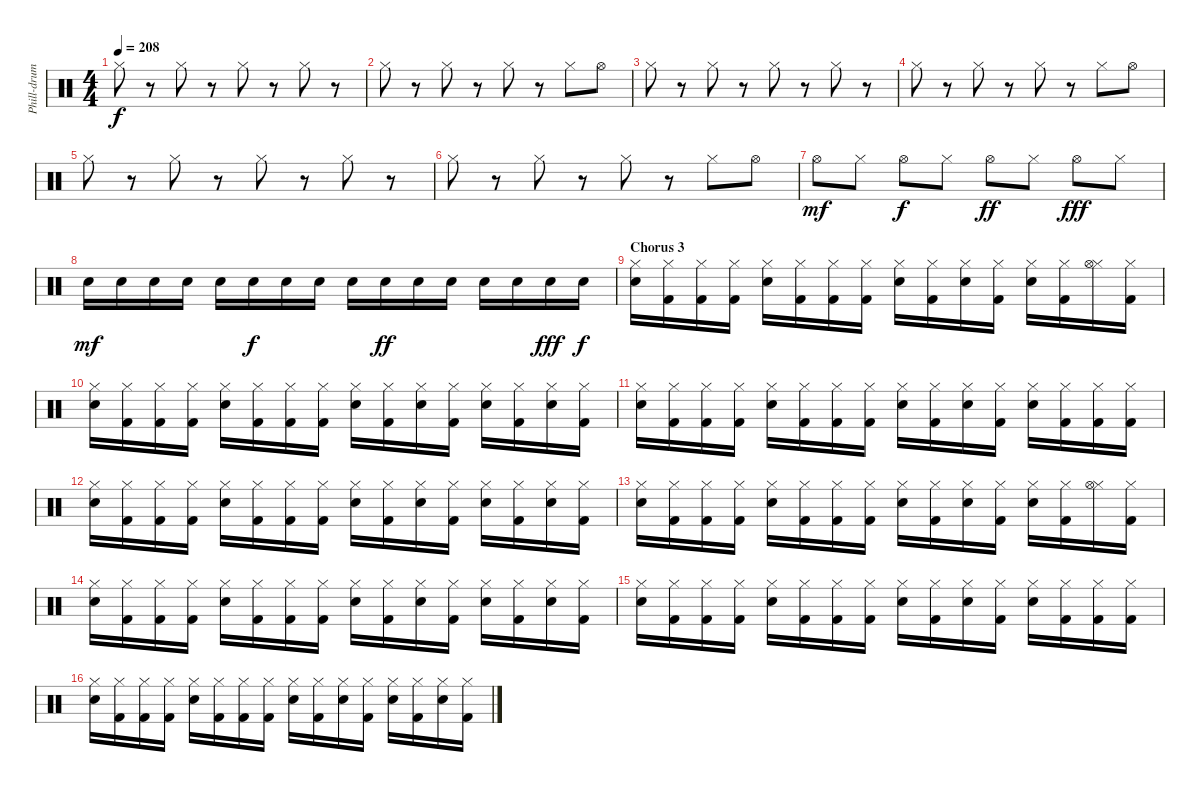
\track ("Phill-drum" "Phill-drum") {instrument percussion}
\staff {score}
\articulation defaults
\ts (4 4)
\tempo 208
\clef neutral
\ks c "Hi-Hat (closed)".8{dy f}
r.8 "Hi-Hat (closed)".8 r.8 "Hi-Hat (closed)".8 r.8 "Hi-Hat (closed)".8 r.8 |
"Hi-Hat (closed)".8 r.8 "Hi-Hat (closed)".8 r.8 "Hi-Hat (closed)".8 r.8 "Hi-Hat (closed)".8 "Hi-Hat (open)".8 |
"Hi-Hat (closed)".8 r.8 "Hi-Hat (closed)".8 r.8 "Hi-Hat (closed)".8 r.8 "Hi-Hat (closed)".8 r.8 |
"Hi-Hat (closed)".8 r.8 "Hi-Hat (closed)".8 r.8 "Hi-Hat (closed)".8 r.8 "Hi-Hat (closed)".8 "Hi-Hat (open)".8 |
"Hi-Hat (closed)".8 r.8 "Hi-Hat (closed)".8 r.8 "Hi-Hat (closed)".8 r.8 "Hi-Hat (closed)".8 r.8 |
"Hi-Hat (closed)".8 r.8 "Hi-Hat (closed)".8 r.8 "Hi-Hat (closed)".8 r.8 "Hi-Hat (closed)".8 "Hi-Hat (open)".8 |
"Hi-Hat (open)".8{dy mf} "Hi-Hat (closed)".8 "Hi-Hat (open)".8{dy f} "Hi-Hat (closed)".8 "Hi-Hat (open)".8{dy ff} "Hi-Hat (closed)".8 "Hi-Hat (open)".8{dy fff} "Hi-Hat (closed)".8 |
"Electric Snare (hit)".16{dy mf} "Electric Snare (hit)".16 "Electric Snare (hit)".16 "Electric Snare (hit)".16 "Electric Snare (hit)".16 "Electric Snare (hit)".16{dy f} "Electric Snare (hit)".16 "Electric Snare (hit)".16 "Electric Snare (hit)".16 "Electric Snare (hit)".16{dy ff} "Electric Snare (hit)".16 "Electric Snare (hit)".16 "Electric Snare (hit)".16 "Electric Snare (hit)".16 "Electric Snare (hit)".16{dy fff} "Electric Snare (hit)".16{dy f} |
\section ("" "Chorus 3")
("Hi-Hat (closed)" "Electric Snare (hit)").16 ("Hi-Hat (closed)" "Kick (hit) 2").16 ("Hi-Hat (closed)" "Kick (hit) 2").16 ("Hi-Hat (closed)" "Kick (hit) 2").16 ("Hi-Hat (closed)" "Electric Snare (hit)").16 ("Hi-Hat (closed)" "Kick (hit) 2").16 ("Hi-Hat (closed)" "Kick (hit) 2").16 ("Hi-Hat (closed)" "Kick (hit) 2").16 ("Hi-Hat (closed)" "Electric Snare (hit)").16 ("Hi-Hat (closed)" "Kick (hit) 2").16 ("Hi-Hat (closed)" "Electric Snare (hit)").16 ("Hi-Hat (closed)" "Kick (hit) 2").16 ("Hi-Hat (closed)" "Electric Snare (hit)").16 ("Hi-Hat (closed)" "Kick (hit) 2").16 ("Hi-Hat (closed)" "Hi-Hat (open)").16 ("Hi-Hat (closed)" "Kick (hit) 2").16 |
("Hi-Hat (closed)" "Electric Snare (hit)").16 ("Hi-Hat (closed)" "Kick (hit) 2").16 ("Hi-Hat (closed)" "Kick (hit) 2").16 ("Hi-Hat (closed)" "Kick (hit) 2").16 ("Hi-Hat (closed)" "Electric Snare (hit)").16 ("Hi-Hat (closed)" "Kick (hit) 2").16 ("Hi-Hat (closed)" "Kick (hit) 2").16 ("Hi-Hat (closed)" "Kick (hit) 2").16 ("Hi-Hat (closed)" "Electric Snare (hit)").16 ("Hi-Hat (closed)" "Kick (hit) 2").16 ("Hi-Hat (closed)" "Electric Snare (hit)").16 ("Hi-Hat (closed)" "Kick (hit) 2").16 ("Hi-Hat (closed)" "Electric Snare (hit)").16 ("Hi-Hat (closed)" "Kick (hit) 2").16 ("Hi-Hat (closed)" "Electric Snare (hit)").16 ("Hi-Hat (closed)" "Kick (hit) 2").16 |
("Hi-Hat (closed)" "Electric Snare (hit)").16 ("Hi-Hat (closed)" "Kick (hit) 2").16 ("Hi-Hat (closed)" "Kick (hit) 2").16 ("Hi-Hat (closed)" "Kick (hit) 2").16 ("Hi-Hat (closed)" "Electric Snare (hit)").16 ("Hi-Hat (closed)" "Kick (hit) 2").16 ("Hi-Hat (closed)" "Kick (hit) 2").16 ("Hi-Hat (closed)" "Kick (hit) 2").16 ("Hi-Hat (closed)" "Electric Snare (hit)").16 ("Hi-Hat (closed)" "Kick (hit) 2").16 ("Hi-Hat (closed)" "Electric Snare (hit)").16 ("Hi-Hat (closed)" "Kick (hit) 2").16 ("Hi-Hat (closed)" "Electric Snare (hit)").16 ("Hi-Hat (closed)" "Kick (hit) 2").16 ("Hi-Hat (closed)" "Kick (hit) 2").16 ("Hi-Hat (closed)" "Kick (hit) 2").16 |
("Hi-Hat (closed)" "Electric Snare (hit)").16 ("Hi-Hat (closed)" "Kick (hit) 2").16 ("Hi-Hat (closed)" "Kick (hit) 2").16 ("Hi-Hat (closed)" "Kick (hit) 2").16 ("Hi-Hat (closed)" "Electric Snare (hit)").16 ("Hi-Hat (closed)" "Kick (hit) 2").16 ("Hi-Hat (closed)" "Kick (hit) 2").16 ("Hi-Hat (closed)" "Kick (hit) 2").16 ("Hi-Hat (closed)" "Electric Snare (hit)").16 ("Hi-Hat (closed)" "Kick (hit) 2").16 ("Hi-Hat (closed)" "Electric Snare (hit)").16 ("Hi-Hat (closed)" "Kick (hit) 2").16 ("Hi-Hat (closed)" "Electric Snare (hit)").16 ("Hi-Hat (closed)" "Kick (hit) 2").16 ("Hi-Hat (closed)" "Electric Snare (hit)").16 ("Hi-Hat (closed)" "Kick (hit) 2").16 |
("Hi-Hat (closed)" "Electric Snare (hit)").16 ("Hi-Hat (closed)" "Kick (hit) 2").16 ("Hi-Hat (closed)" "Kick (hit) 2").16 ("Hi-Hat (closed)" "Kick (hit) 2").16 ("Hi-Hat (closed)" "Electric Snare (hit)").16 ("Hi-Hat (closed)" "Kick (hit) 2").16 ("Hi-Hat (closed)" "Kick (hit) 2").16 ("Hi-Hat (closed)" "Kick (hit) 2").16 ("Hi-Hat (closed)" "Electric Snare (hit)").16 ("Hi-Hat (closed)" "Kick (hit) 2").16 ("Hi-Hat (closed)" "Electric Snare (hit)").16 ("Hi-Hat (closed)" "Kick (hit) 2").16 ("Hi-Hat (closed)" "Electric Snare (hit)").16 ("Hi-Hat (closed)" "Kick (hit) 2").16 ("Hi-Hat (closed)" "Hi-Hat (open)").16 ("Hi-Hat (closed)" "Kick (hit) 2").16 |
("Hi-Hat (closed)" "Electric Snare (hit)").16 ("Hi-Hat (closed)" "Kick (hit) 2").16 ("Hi-Hat (closed)" "Kick (hit) 2").16 ("Hi-Hat (closed)" "Kick (hit) 2").16 ("Hi-Hat (closed)" "Electric Snare (hit)").16 ("Hi-Hat (closed)" "Kick (hit) 2").16 ("Hi-Hat (closed)" "Kick (hit) 2").16 ("Hi-Hat (closed)" "Kick (hit) 2").16 ("Hi-Hat (closed)" "Electric Snare (hit)").16 ("Hi-Hat (closed)" "Kick (hit) 2").16 ("Hi-Hat (closed)" "Electric Snare (hit)").16 ("Hi-Hat (closed)" "Kick (hit) 2").16 ("Hi-Hat (closed)" "Electric Snare (hit)").16 ("Hi-Hat (closed)" "Kick (hit) 2").16 ("Hi-Hat (closed)" "Electric Snare (hit)").16 ("Hi-Hat (closed)" "Kick (hit) 2").16 |
("Hi-Hat (closed)" "Electric Snare (hit)").16 ("Hi-Hat (closed)" "Kick (hit) 2").16 ("Hi-Hat (closed)" "Kick (hit) 2").16 ("Hi-Hat (closed)" "Kick (hit) 2").16 ("Hi-Hat (closed)" "Electric Snare (hit)").16 ("Hi-Hat (closed)" "Kick (hit) 2").16 ("Hi-Hat (closed)" "Kick (hit) 2").16 ("Hi-Hat (closed)" "Kick (hit) 2").16 ("Hi-Hat (closed)" "Electric Snare (hit)").16 ("Hi-Hat (closed)" "Kick (hit) 2").16 ("Hi-Hat (closed)" "Electric Snare (hit)").16 ("Hi-Hat (closed)" "Kick (hit) 2").16 ("Hi-Hat (closed)" "Electric Snare (hit)").16 ("Hi-Hat (closed)" "Kick (hit) 2").16 ("Hi-Hat (closed)" "Kick (hit) 2").16 ("Hi-Hat (closed)" "Kick (hit) 2").16 |
("Hi-Hat (closed)" "Electric Snare (hit)").16 ("Hi-Hat (closed)" "Kick (hit) 2").16 ("Hi-Hat (closed)" "Kick (hit) 2").16 ("Hi-Hat (closed)" "Kick (hit) 2").16 ("Hi-Hat (closed)" "Electric Snare (hit)").16 ("Hi-Hat (closed)" "Kick (hit) 2").16 ("Hi-Hat (closed)" "Kick (hit) 2").16 ("Hi-Hat (closed)" "Kick (hit) 2").16 ("Hi-Hat (closed)" "Electric Snare (hit)").16 ("Hi-Hat (closed)" "Kick (hit) 2").16 ("Hi-Hat (closed)" "Electric Snare (hit)").16 ("Hi-Hat (closed)" "Kick (hit) 2").16 ("Hi-Hat (closed)" "Electric Snare (hit)").16 ("Hi-Hat (closed)" "Kick (hit) 2").16 ("Hi-Hat (closed)" "Electric Snare (hit)").16 ("Hi-Hat (closed)" "Kick (hit) 2").16
